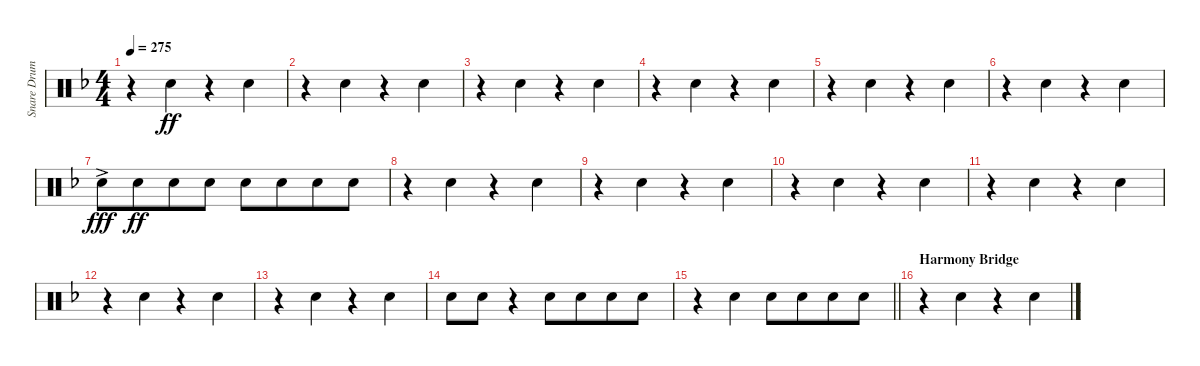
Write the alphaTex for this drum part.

\track ("Snare Drum" "Snare Drum") {instrument percussion}
\staff {score}
\articulation defaults
\ts (4 4)
\tempo 275
\clef neutral
\ks dminor
r.4{dy ff} "Electric Snare (hit)".4 r.4 "Electric Snare (hit)".4 |
r.4 "Electric Snare (hit)".4 r.4 "Electric Snare (hit)".4 |
r.4 "Electric Snare (hit)".4 r.4 "Electric Snare (hit)".4 |
r.4 "Electric Snare (hit)".4 r.4 "Electric Snare (hit)".4 |
r.4 "Electric Snare (hit)".4 r.4 "Electric Snare (hit)".4 |
r.4 "Electric Snare (hit)".4 r.4 "Electric Snare (hit)".4 |
"Electric Snare (hit)"{ac}.8{dy fff} "Electric Snare (hit)".8{dy ff beam merge} "Electric Snare (hit)".8 "Electric Snare (hit)".8 "Electric Snare (hit)".8 "Electric Snare (hit)".8{beam merge} "Electric Snare (hit)".8 "Electric Snare (hit)".8 |
r.4 "Electric Snare (hit)".4 r.4 "Electric Snare (hit)".4 |
r.4 "Electric Snare (hit)".4 r.4 "Electric Snare (hit)".4 |
r.4 "Electric Snare (hit)".4 r.4 "Electric Snare (hit)".4 |
r.4 "Electric Snare (hit)".4 r.4 "Electric Snare (hit)".4 |
r.4 "Electric Snare (hit)".4 r.4 "Electric Snare (hit)".4 |
r.4 "Electric Snare (hit)".4 r.4 "Electric Snare (hit)".4 |
"Electric Snare (hit)".8 "Electric Snare (hit)".8 r.4 "Electric Snare (hit)".8 "Electric Snare (hit)".8{beam merge} "Electric Snare (hit)".8 "Electric Snare (hit)".8 |
\barLineRight lightlight
r.4 "Electric Snare (hit)".4 "Electric Snare (hit)".8 "Electric Snare (hit)".8{beam merge} "Electric Snare (hit)".8 "Electric Snare (hit)".8 |
\section ("" "Harmony Bridge")
r.4 "Electric Snare (hit)".4 r.4 "Electric Snare (hit)".4
